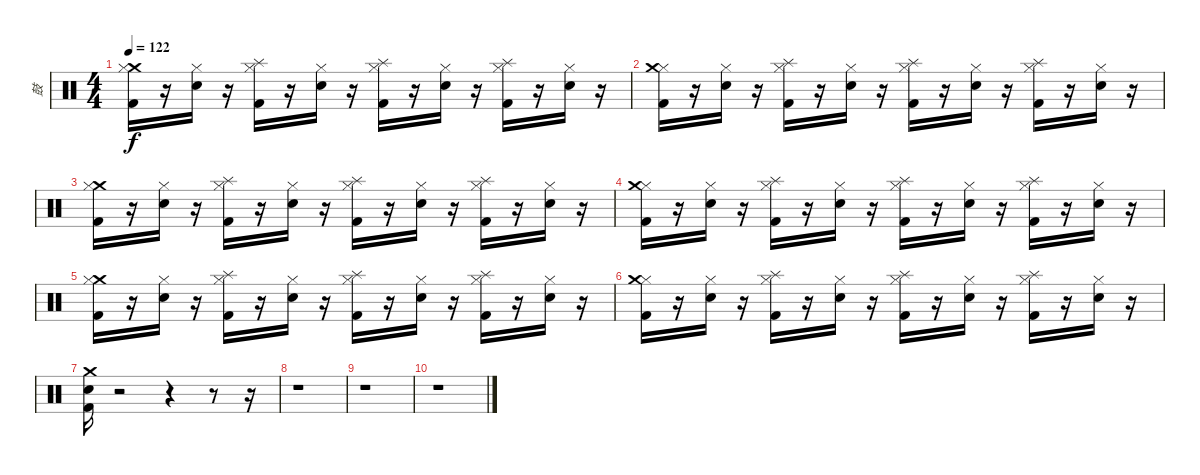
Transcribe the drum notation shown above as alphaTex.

\track ("鼓" "鼓") {instrument percussion}
\staff {score}
\articulation defaults
\ts (4 4)
\tempo 122
\clef neutral
\ks c
("Crash medium (hit)" "Kick (hit) 2" "Hi-Hat (closed)").16{dy f} r.16 ("Snare (hit) 2" "Hi-Hat (closed)").16 r.16 ("Kick (hit) 2" "Hi-Hat (closed)" "Splash (hit)").16 r.16 ("Snare (hit) 2" "Hi-Hat (closed)").16 r.16 ("Kick (hit) 2" "Hi-Hat (closed)" "Splash (hit)").16 r.16 ("Snare (hit) 2" "Hi-Hat (closed)").16 r.16 ("Kick (hit) 2" "Hi-Hat (closed)" "Splash (hit)").16 r.16 ("Snare (hit) 2" "Hi-Hat (closed)").16 r.16 |
("Kick (hit) 2" "Hi-Hat (closed)" "Crash medium (hit)").16 r.16 ("Snare (hit) 2" "Hi-Hat (closed)").16 r.16 ("Kick (hit) 2" "Hi-Hat (closed)" "Splash (hit)").16 r.16 ("Snare (hit) 2" "Hi-Hat (closed)").16 r.16 ("Kick (hit) 2" "Hi-Hat (closed)" "Splash (hit)").16 r.16 ("Snare (hit) 2" "Hi-Hat (closed)").16 r.16 ("Kick (hit) 2" "Splash (hit)" "Hi-Hat (closed)").16 r.16 ("Snare (hit) 2" "Hi-Hat (closed)").16 r.16 |
("Kick (hit) 2" "Crash medium (hit)" "Hi-Hat (closed)").16 r.16 ("Snare (hit) 2" "Hi-Hat (closed)").16 r.16 ("Kick (hit) 2" "Hi-Hat (closed)" "Splash (hit)").16 r.16 ("Snare (hit) 2" "Hi-Hat (closed)").16 r.16 ("Kick (hit) 2" "Hi-Hat (closed)" "Splash (hit)").16 r.16 ("Snare (hit) 2" "Hi-Hat (closed)").16 r.16 ("Kick (hit) 2" "Hi-Hat (closed)" "Splash (hit)").16 r.16 ("Hi-Hat (closed)" "Snare (hit) 2").16 r.16 |
("Kick (hit) 2" "Hi-Hat (closed)" "Crash medium (hit)").16 r.16 ("Snare (hit) 2" "Hi-Hat (closed)").16 r.16 ("Kick (hit) 2" "Hi-Hat (closed)" "Splash (hit)").16 r.16 ("Snare (hit) 2" "Hi-Hat (closed)").16 r.16 ("Kick (hit) 2" "Hi-Hat (closed)" "Splash (hit)").16 r.16 ("Snare (hit) 2" "Hi-Hat (closed)").16 r.16 ("Kick (hit) 2" "Splash (hit)" "Hi-Hat (closed)").16 r.16 ("Snare (hit) 2" "Hi-Hat (closed)").16 r.16 |
("Kick (hit) 2" "Crash medium (hit)" "Hi-Hat (closed)").16 r.16 ("Snare (hit) 2" "Hi-Hat (closed)").16 r.16 ("Kick (hit) 2" "Splash (hit)" "Hi-Hat (closed)").16 r.16 ("Snare (hit) 2" "Hi-Hat (closed)").16 r.16 ("Hi-Hat (closed)" "Kick (hit) 2" "Splash (hit)").16 r.16 ("Snare (hit) 2" "Hi-Hat (closed)").16 r.16 ("Splash (hit)" "Kick (hit) 2" "Hi-Hat (closed)").16 r.16 ("Snare (hit) 2" "Hi-Hat (closed)").16 r.16 |
("Kick (hit) 2" "Hi-Hat (closed)" "Crash medium (hit)").16 r.16 ("Snare (hit) 2" "Hi-Hat (closed)").16 r.16 ("Splash (hit)" "Kick (hit) 2" "Hi-Hat (closed)").16 r.16 ("Snare (hit) 2" "Hi-Hat (closed)").16 r.16 ("Kick (hit) 2" "Hi-Hat (closed)" "Splash (hit)").16 r.16 ("Snare (hit) 2" "Hi-Hat (closed)").16 r.16 ("Hi-Hat (closed)" "Splash (hit)" "Kick (hit) 2").16 r.16 ("Hi-Hat (closed)" "Snare (hit) 2").16 r.16 |
("Crash medium (hit)" "Snare (hit) 2" "Kick (hit) 2").16 r.2 r.4 r.8 r.16 |
r.1 |
r.1 |
r.1
